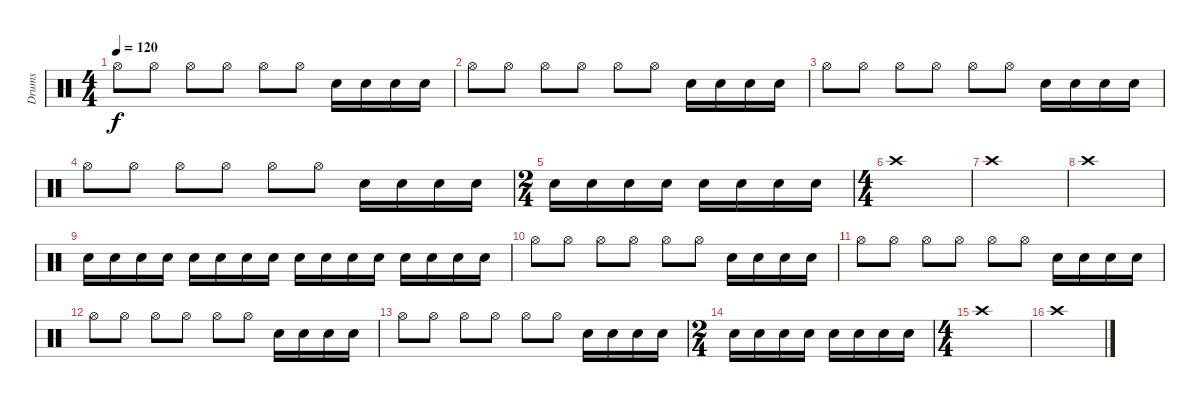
\track ("Drums" "Drums") {instrument percussion}
\staff {score}
\articulation defaults
\ts (4 4)
\tempo 120
\clef neutral
\ks c "Hi-Hat (open)".8{dy f} "Hi-Hat (open)".8 "Hi-Hat (open)".8 "Hi-Hat (open)".8 "Hi-Hat (open)".8 "Hi-Hat (open)".8 "Electric Snare (hit)".16 "Electric Snare (hit)".16 "Electric Snare (hit)".16 "Electric Snare (hit)".16
|
"Hi-Hat (open)".8 "Hi-Hat (open)".8 "Hi-Hat (open)".8 "Hi-Hat (open)".8 "Hi-Hat (open)".8 "Hi-Hat (open)".8 "Electric Snare (hit)".16 "Electric Snare (hit)".16 "Electric Snare (hit)".16 "Electric Snare (hit)".16 |
"Hi-Hat (open)".8 "Hi-Hat (open)".8 "Hi-Hat (open)".8 "Hi-Hat (open)".8 "Hi-Hat (open)".8 "Hi-Hat (open)".8 "Electric Snare (hit)".16 "Electric Snare (hit)".16 "Electric Snare (hit)".16 "Electric Snare (hit)".16 |
"Hi-Hat (open)".8 "Hi-Hat (open)".8 "Hi-Hat (open)".8 "Hi-Hat (open)".8 "Hi-Hat (open)".8 "Hi-Hat (open)".8 "Electric Snare (hit)".16 "Electric Snare (hit)".16 "Electric Snare (hit)".16 "Electric Snare (hit)".16 |
\ts (2 4)
"Electric Snare (hit)".16 "Electric Snare (hit)".16 "Electric Snare (hit)".16 "Electric Snare (hit)".16 "Electric Snare (hit)".16 "Electric Snare (hit)".16 "Electric Snare (hit)".16 "Electric Snare (hit)".16 |
\ts (4 4)
"Crash high (hit)".1 |
"Crash high (hit)".1 |
"Crash high (hit)".1 |
"Electric Snare (hit)".16 "Electric Snare (hit)".16 "Electric Snare (hit)".16 "Electric Snare (hit)".16 "Electric Snare (hit)".16 "Electric Snare (hit)".16 "Electric Snare (hit)".16 "Electric Snare (hit)".16 "Electric Snare (hit)".16 "Electric Snare (hit)".16 "Electric Snare (hit)".16 "Electric Snare (hit)".16 "Electric Snare (hit)".16 "Electric Snare (hit)".16 "Electric Snare (hit)".16 "Electric Snare (hit)".16 |
"Hi-Hat (open)".8 "Hi-Hat (open)".8 "Hi-Hat (open)".8 "Hi-Hat (open)".8 "Hi-Hat (open)".8 "Hi-Hat (open)".8 "Electric Snare (hit)".16 "Electric Snare (hit)".16 "Electric Snare (hit)".16 "Electric Snare (hit)".16 |
"Hi-Hat (open)".8 "Hi-Hat (open)".8 "Hi-Hat (open)".8 "Hi-Hat (open)".8 "Hi-Hat (open)".8 "Hi-Hat (open)".8 "Electric Snare (hit)".16 "Electric Snare (hit)".16 "Electric Snare (hit)".16 "Electric Snare (hit)".16 |
"Hi-Hat (open)".8 "Hi-Hat (open)".8 "Hi-Hat (open)".8 "Hi-Hat (open)".8 "Hi-Hat (open)".8 "Hi-Hat (open)".8 "Electric Snare (hit)".16 "Electric Snare (hit)".16 "Electric Snare (hit)".16 "Electric Snare (hit)".16 |
"Hi-Hat (open)".8 "Hi-Hat (open)".8 "Hi-Hat (open)".8 "Hi-Hat (open)".8 "Hi-Hat (open)".8 "Hi-Hat (open)".8 "Electric Snare (hit)".16 "Electric Snare (hit)".16 "Electric Snare (hit)".16 "Electric Snare (hit)".16 |
\ts (2 4)
"Electric Snare (hit)".16 "Electric Snare (hit)".16 "Electric Snare (hit)".16 "Electric Snare (hit)".16 "Electric Snare (hit)".16 "Electric Snare (hit)".16 "Electric Snare (hit)".16 "Electric Snare (hit)".16 |
\ts (4 4)
"Crash high (hit)".1 |
"Crash high (hit)".1
